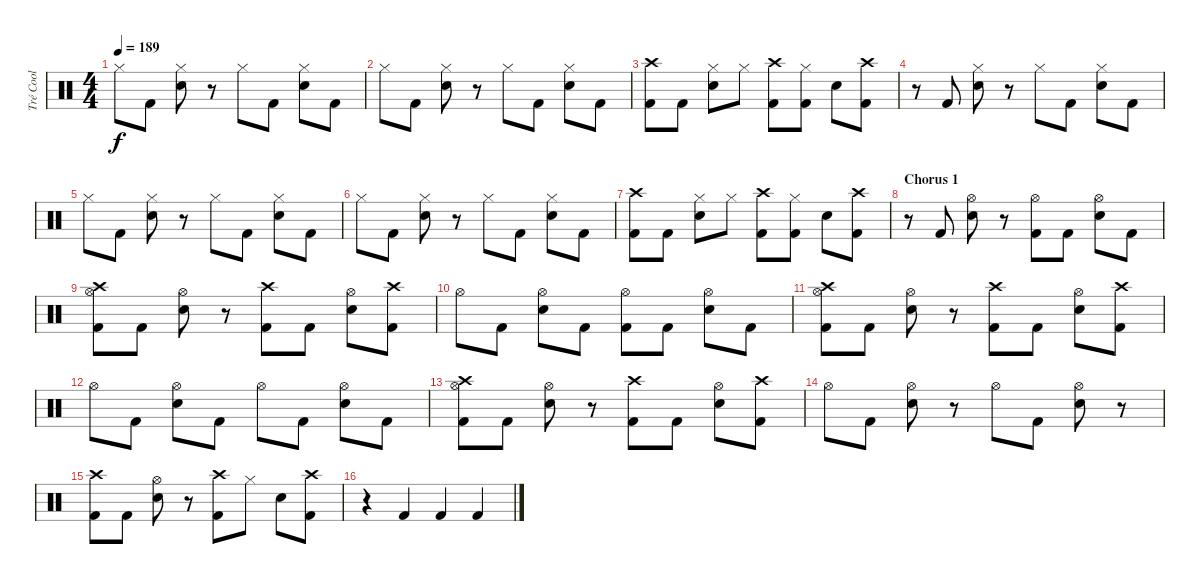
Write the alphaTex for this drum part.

\track ("Tré Cool" "Tré Cool") {instrument percussion}
\staff {score}
\articulation defaults
\ts (4 4)
\tempo 189
\clef neutral
\ks c "Hi-Hat (closed)".8{dy f} "Kick (hit) 2".8
("Hi-Hat (closed)" "Snare (hit) 2").8 r.8 "Hi-Hat (closed)".8 "Kick (hit) 2".8 ("Hi-Hat (closed)" "Snare (hit) 2").8 "Kick (hit) 2".8 |
"Hi-Hat (closed)".8 "Kick (hit) 2".8 ("Hi-Hat (closed)" "Snare (hit) 2").8 r.8 "Hi-Hat (closed)".8 "Kick (hit) 2".8 ("Hi-Hat (closed)" "Snare (hit) 2").8 "Kick (hit) 2".8 |
("Crash high (hit)" "Kick (hit) 2").8 "Kick (hit) 2".8 ("Hi-Hat (closed)" "Snare (hit) 2").8 "Hi-Hat (closed)".8 ("Crash high (hit)" "Kick (hit) 2").8 ("Hi-Hat (closed)" "Kick (hit) 2").8 "Snare (hit) 2".8 ("Crash high (hit)" "Kick (hit) 2").8 |
r.8 "Kick (hit) 2".8 ("Hi-Hat (closed)" "Snare (hit) 2").8 r.8 "Hi-Hat (closed)".8 "Kick (hit) 2".8 ("Hi-Hat (closed)" "Snare (hit) 2").8 "Kick (hit) 2".8 |
"Hi-Hat (closed)".8 "Kick (hit) 2".8 ("Hi-Hat (closed)" "Snare (hit) 2").8 r.8 "Hi-Hat (closed)".8 "Kick (hit) 2".8 ("Hi-Hat (closed)" "Snare (hit) 2").8 "Kick (hit) 2".8 |
"Hi-Hat (closed)".8 "Kick (hit) 2".8 ("Hi-Hat (closed)" "Snare (hit) 2").8 r.8 "Hi-Hat (closed)".8 "Kick (hit) 2".8 ("Hi-Hat (closed)" "Snare (hit) 2").8 "Kick (hit) 2".8 |
("Crash high (hit)" "Kick (hit) 2").8 "Kick (hit) 2".8 ("Hi-Hat (closed)" "Snare (hit) 2").8 "Hi-Hat (closed)".8 ("Crash high (hit)" "Kick (hit) 2").8 ("Hi-Hat (closed)" "Kick (hit) 2").8 "Snare (hit) 2".8 ("Crash high (hit)" "Kick (hit) 2").8 |
\section ("" "Chorus 1")
r.8 "Kick (hit) 2".8 ("Hi-Hat (open)" "Snare (hit) 2").8 r.8 ("Hi-Hat (open)" "Kick (hit) 2").8 "Kick (hit) 2".8 ("Hi-Hat (open)" "Snare (hit) 2").8 "Kick (hit) 2".8 |
("Crash high (hit)" "Hi-Hat (open)" "Kick (hit) 2").8 "Kick (hit) 2".8 ("Hi-Hat (open)" "Snare (hit) 2").8 r.8 ("Crash high (hit)" "Kick (hit) 2").8 "Kick (hit) 2".8 ("Hi-Hat (open)" "Snare (hit) 2").8 ("Crash high (hit)" "Kick (hit) 2").8 |
"Hi-Hat (open)".8 "Kick (hit) 2".8 ("Hi-Hat (open)" "Snare (hit) 2").8 "Kick (hit) 2".8 ("Hi-Hat (open)" "Kick (hit) 2").8 "Kick (hit) 2".8 ("Hi-Hat (open)" "Snare (hit) 2").8 "Kick (hit) 2".8 |
("Crash high (hit)" "Hi-Hat (open)" "Kick (hit) 2").8 "Kick (hit) 2".8 ("Hi-Hat (open)" "Snare (hit) 2").8 r.8 ("Crash high (hit)" "Kick (hit) 2").8 "Kick (hit) 2".8 ("Hi-Hat (open)" "Snare (hit) 2").8 ("Crash high (hit)" "Kick (hit) 2").8 |
"Hi-Hat (open)".8 "Kick (hit) 2".8 ("Hi-Hat (open)" "Snare (hit) 2").8 "Kick (hit) 2".8 "Hi-Hat (open)".8 "Kick (hit) 2".8 ("Hi-Hat (open)" "Snare (hit) 2").8 "Kick (hit) 2".8 |
("Crash high (hit)" "Hi-Hat (open)" "Kick (hit) 2").8 "Kick (hit) 2".8 ("Hi-Hat (open)" "Snare (hit) 2").8 r.8 ("Crash high (hit)" "Kick (hit) 2").8 "Kick (hit) 2".8 ("Hi-Hat (open)" "Snare (hit) 2").8 ("Crash high (hit)" "Kick (hit) 2").8 |
"Hi-Hat (open)".8 "Kick (hit) 2".8 ("Hi-Hat (open)" "Snare (hit) 2").8 r.8 "Hi-Hat (open)".8 "Kick (hit) 2".8 ("Hi-Hat (open)" "Snare (hit) 2").8 r.8 |
("Crash high (hit)" "Kick (hit) 2").8 "Kick (hit) 2".8 ("Hi-Hat (open)" "Snare (hit) 2").8 r.8 ("Crash high (hit)" "Kick (hit) 2").8 "Hi-Hat (closed)".8 "Snare (hit) 2".8 ("Crash high (hit)" "Kick (hit) 2").8 |
r.4 "Kick (hit) 2".4 "Kick (hit) 2".4 "Kick (hit) 2".4
